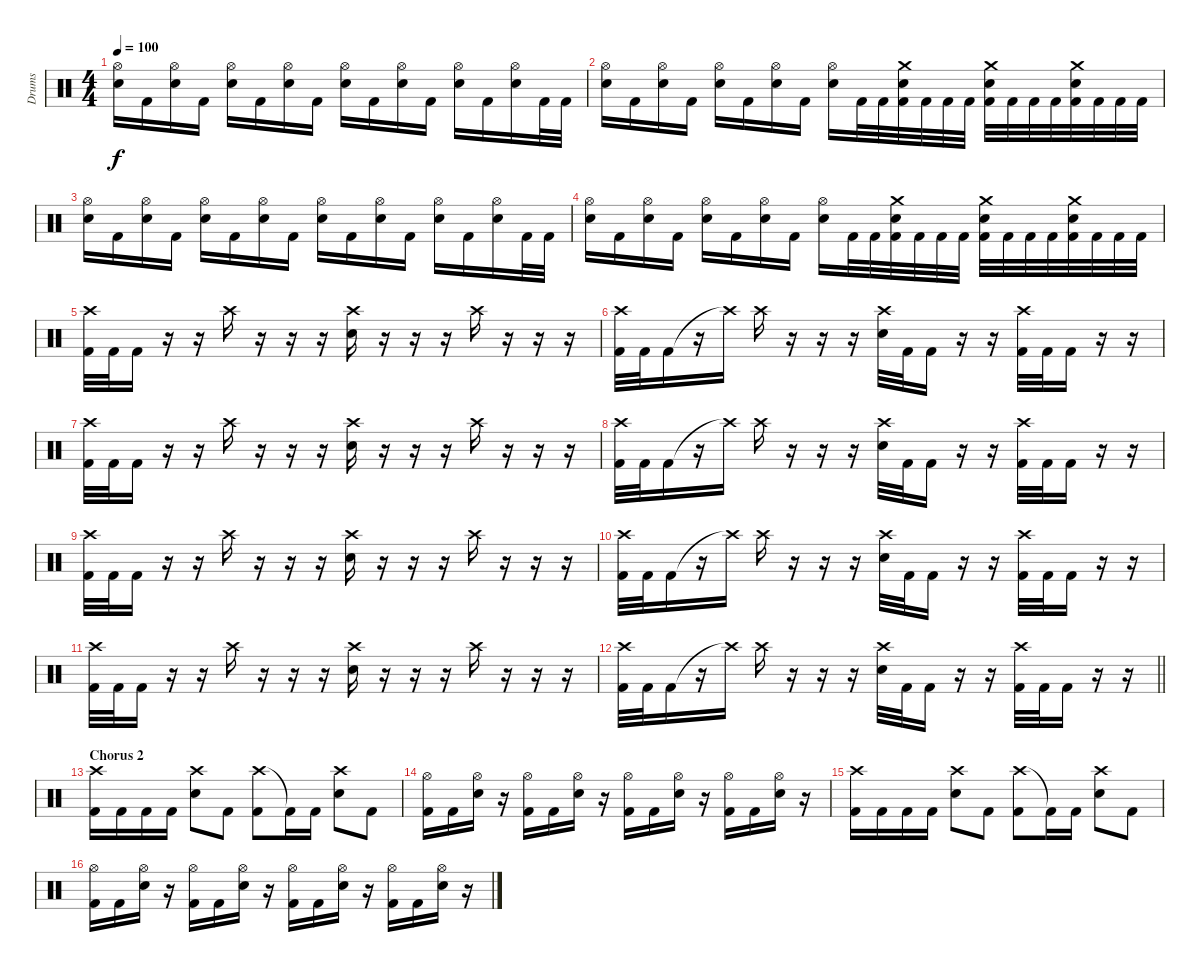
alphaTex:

\track ("Drums" "Drums") {instrument percussion}
\staff {score}
\articulation defaults
\ts (4 4)
\tempo 100
\clef neutral
\ks c
("Hi-Hat (open)" "Snare (hit) 2").16{dy f} "Kick (hit) 2".16 ("Hi-Hat (open)" "Snare (hit) 2").16 "Kick (hit) 2".16 ("Hi-Hat (open)" "Snare (hit) 2").16 "Kick (hit) 2".16 ("Hi-Hat (open)" "Snare (hit) 2").16 "Kick (hit) 2".16 ("Hi-Hat (open)" "Snare (hit) 2").16 "Kick (hit) 2".16 ("Hi-Hat (open)" "Snare (hit) 2").16 "Kick (hit) 2".16 ("Hi-Hat (open)" "Snare (hit) 2").16 "Kick (hit) 2".16 ("Hi-Hat (open)" "Snare (hit) 2").16 "Kick (hit) 2".32 "Kick (hit) 2".32 |
("Hi-Hat (open)" "Snare (hit) 2").16 "Kick (hit) 2".16 ("Hi-Hat (open)" "Snare (hit) 2").16 "Kick (hit) 2".16 ("Hi-Hat (open)" "Snare (hit) 2").16 "Kick (hit) 2".16 ("Hi-Hat (open)" "Snare (hit) 2").16 "Kick (hit) 2".16 ("Hi-Hat (open)" "Snare (hit) 2").16 "Kick (hit) 2".32 "Kick (hit) 2".32 ("Crash medium (hit)" "Snare (hit) 2" "Kick (hit) 2").32 "Kick (hit) 2".32 "Kick (hit) 2".32 "Kick (hit) 2".32 ("Crash medium (hit)" "Snare (hit) 2" "Kick (hit) 2").32 "Kick (hit) 2".32 "Kick (hit) 2".32 "Kick (hit) 2".32 ("Crash medium (hit)" "Snare (hit) 2" "Kick (hit) 2").32 "Kick (hit) 2".32 "Kick (hit) 2".32 "Kick (hit) 2".32 |
("Hi-Hat (open)" "Snare (hit) 2").16 "Kick (hit) 2".16 ("Hi-Hat (open)" "Snare (hit) 2").16 "Kick (hit) 2".16 ("Hi-Hat (open)" "Snare (hit) 2").16 "Kick (hit) 2".16 ("Hi-Hat (open)" "Snare (hit) 2").16 "Kick (hit) 2".16 ("Hi-Hat (open)" "Snare (hit) 2").16 "Kick (hit) 2".16 ("Hi-Hat (open)" "Snare (hit) 2").16 "Kick (hit) 2".16 ("Hi-Hat (open)" "Snare (hit) 2").16 "Kick (hit) 2".16 ("Hi-Hat (open)" "Snare (hit) 2").16 "Kick (hit) 2".32 "Kick (hit) 2".32 |
("Hi-Hat (open)" "Snare (hit) 2").16 "Kick (hit) 2".16 ("Hi-Hat (open)" "Snare (hit) 2").16 "Kick (hit) 2".16 ("Hi-Hat (open)" "Snare (hit) 2").16 "Kick (hit) 2".16 ("Hi-Hat (open)" "Snare (hit) 2").16 "Kick (hit) 2".16 ("Hi-Hat (open)" "Snare (hit) 2").16 "Kick (hit) 2".32 "Kick (hit) 2".32 ("Crash medium (hit)" "Snare (hit) 2" "Kick (hit) 2").32 "Kick (hit) 2".32 "Kick (hit) 2".32 "Kick (hit) 2".32 ("Crash medium (hit)" "Snare (hit) 2" "Kick (hit) 2").32 "Kick (hit) 2".32 "Kick (hit) 2".32 "Kick (hit) 2".32 ("Crash medium (hit)" "Snare (hit) 2" "Kick (hit) 2").32 "Kick (hit) 2".32 "Kick (hit) 2".32 "Kick (hit) 2".32 |
("Crash high (hit)" "Kick (hit) 2").32 "Kick (hit) 2".32 "Kick (hit) 2".16 r.16 r.16 "Crash high (hit)".16 r.16 r.16 r.16 ("Crash high (hit)" "Snare (hit) 2").16 r.16 r.16 r.16 "Crash high (hit)".16 r.16 r.16 r.16 |
("Crash high (hit)" "Kick (hit) 2").32 "Kick (hit) 2".32 "Kick (hit) 2".16 r.16 "Crash high (hit)"{t}.16 "Crash high (hit)".16 r.16 r.16 r.16 ("Crash high (hit)" "Snare (hit) 2").32 "Kick (hit) 2".32 "Kick (hit) 2".16 r.16 r.16 ("Crash high (hit)" "Kick (hit) 2").32 "Kick (hit) 2".32 "Kick (hit) 2".16 r.16 r.16 |
("Crash high (hit)" "Kick (hit) 2").32 "Kick (hit) 2".32 "Kick (hit) 2".16 r.16 r.16 "Crash high (hit)".16 r.16 r.16 r.16 ("Crash high (hit)" "Snare (hit) 2").16 r.16 r.16 r.16 "Crash high (hit)".16 r.16 r.16 r.16 |
("Crash high (hit)" "Kick (hit) 2").32 "Kick (hit) 2".32 "Kick (hit) 2".16 r.16 "Crash high (hit)"{t}.16 "Crash high (hit)".16 r.16 r.16 r.16 ("Crash high (hit)" "Snare (hit) 2").32 "Kick (hit) 2".32 "Kick (hit) 2".16 r.16 r.16 ("Crash high (hit)" "Kick (hit) 2").32 "Kick (hit) 2".32 "Kick (hit) 2".16 r.16 r.16 |
("Crash high (hit)" "Kick (hit) 2").32 "Kick (hit) 2".32 "Kick (hit) 2".16 r.16 r.16 "Crash high (hit)".16 r.16 r.16 r.16 ("Crash high (hit)" "Snare (hit) 2").16 r.16 r.16 r.16 "Crash high (hit)".16 r.16 r.16 r.16 |
("Crash high (hit)" "Kick (hit) 2").32 "Kick (hit) 2".32 "Kick (hit) 2".16 r.16 "Crash high (hit)"{t}.16 "Crash high (hit)".16 r.16 r.16 r.16 ("Crash high (hit)" "Snare (hit) 2").32 "Kick (hit) 2".32 "Kick (hit) 2".16 r.16 r.16 ("Crash high (hit)" "Kick (hit) 2").32 "Kick (hit) 2".32 "Kick (hit) 2".16 r.16 r.16 |
("Crash high (hit)" "Kick (hit) 2").32 "Kick (hit) 2".32 "Kick (hit) 2".16 r.16 r.16 "Crash high (hit)".16 r.16 r.16 r.16 ("Crash high (hit)" "Snare (hit) 2").16 r.16 r.16 r.16 "Crash high (hit)".16 r.16 r.16 r.16 |
\barLineRight lightlight
("Crash high (hit)" "Kick (hit) 2").32 "Kick (hit) 2".32 "Kick (hit) 2".16 r.16 "Crash high (hit)"{t}.16 "Crash high (hit)".16 r.16 r.16 r.16 ("Crash high (hit)" "Snare (hit) 2").32 "Kick (hit) 2".32 "Kick (hit) 2".16 r.16 r.16 ("Crash high (hit)" "Kick (hit) 2").32 "Kick (hit) 2".32 "Kick (hit) 2".16 r.16 r.16 |
\section ("" "Chorus 2")
("Crash high (hit)" "Kick (hit) 2").16 "Kick (hit) 2".16 "Kick (hit) 2".16 "Kick (hit) 2".16 ("Crash high (hit)" "Snare (hit) 2").8 "Kick (hit) 2".8 ("Crash high (hit)" "Kick (hit) 2").8 "Kick (hit) 2"{t}.16 "Kick (hit) 2".16 ("Crash high (hit)" "Snare (hit) 2").8 "Kick (hit) 2".8 |
("Hi-Hat (open)" "Kick (hit) 2").16 "Kick (hit) 2".16 ("Hi-Hat (open)" "Snare (hit) 2").16 r.16 ("Hi-Hat (open)" "Kick (hit) 2").16 "Kick (hit) 2".16 ("Hi-Hat (open)" "Snare (hit) 2").16 r.16 ("Hi-Hat (open)" "Kick (hit) 2").16 "Kick (hit) 2".16 ("Hi-Hat (open)" "Snare (hit) 2").16 r.16 ("Hi-Hat (open)" "Kick (hit) 2").16 "Kick (hit) 2".16 ("Hi-Hat (open)" "Snare (hit) 2").16 r.16 |
("Crash high (hit)" "Kick (hit) 2").16 "Kick (hit) 2".16 "Kick (hit) 2".16 "Kick (hit) 2".16 ("Crash high (hit)" "Snare (hit) 2").8 "Kick (hit) 2".8 ("Crash high (hit)" "Kick (hit) 2").8 "Kick (hit) 2"{t}.16 "Kick (hit) 2".16 ("Crash high (hit)" "Snare (hit) 2").8 "Kick (hit) 2".8 |
("Hi-Hat (open)" "Kick (hit) 2").16 "Kick (hit) 2".16 ("Hi-Hat (open)" "Snare (hit) 2").16 r.16 ("Hi-Hat (open)" "Kick (hit) 2").16 "Kick (hit) 2".16 ("Hi-Hat (open)" "Snare (hit) 2").16 r.16 ("Hi-Hat (open)" "Kick (hit) 2").16 "Kick (hit) 2".16 ("Hi-Hat (open)" "Snare (hit) 2").16 r.16 ("Hi-Hat (open)" "Kick (hit) 2").16 "Kick (hit) 2".16 ("Hi-Hat (open)" "Snare (hit) 2").16 r.16
